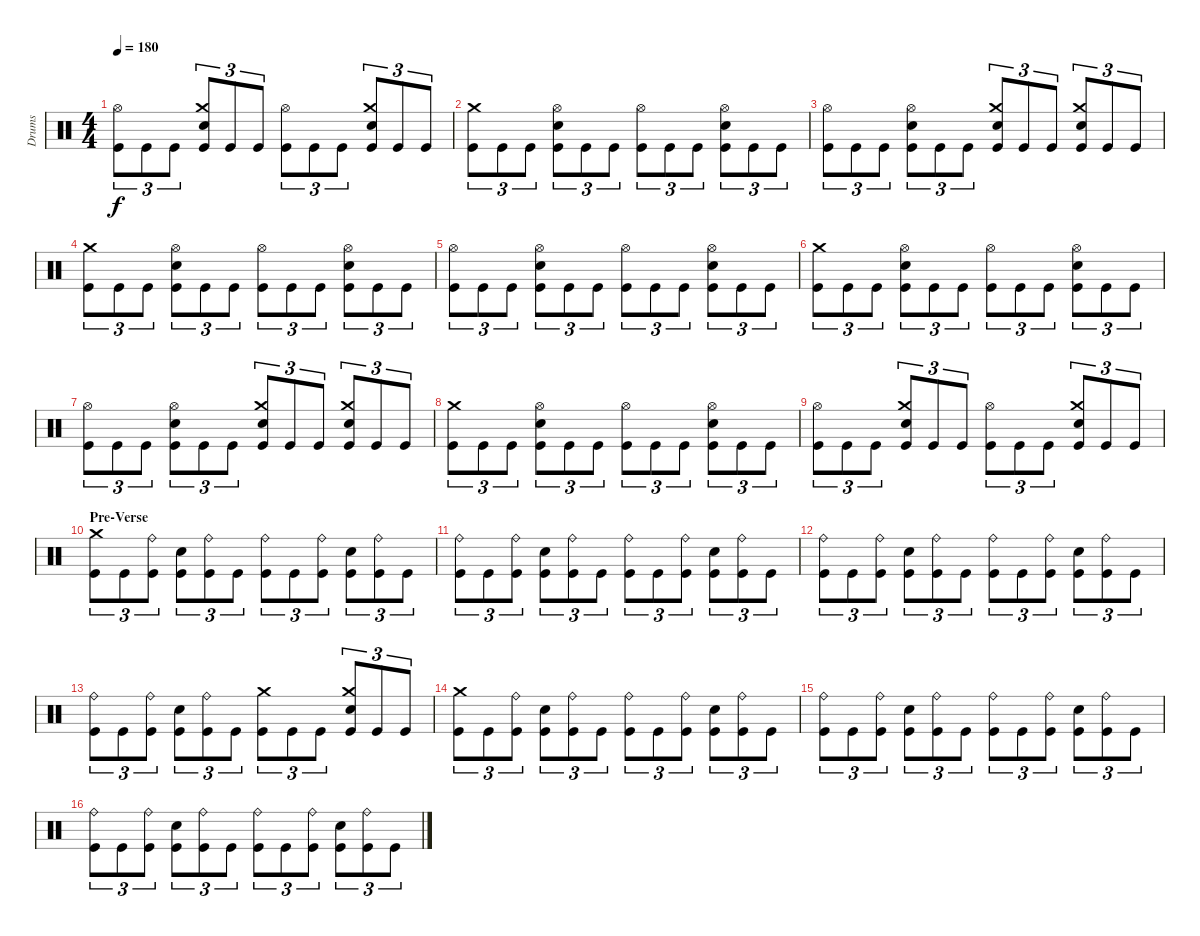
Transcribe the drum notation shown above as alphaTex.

\track ("Drums" "Drums") {instrument percussion}
\staff {score}
\articulation defaults
\ts (4 4)
\tempo 180
\clef neutral
\ks c
("Hi-Hat (open)" "Kick (hit)").8{tu (3 2) dy f} "Kick (hit)".8{tu (3 2)} "Kick (hit)".8{tu (3 2)} ("Crash medium (hit)" "Electric Snare (hit)" "Kick (hit)").8{tu (3 2)} "Kick (hit)".8{tu (3 2)} "Kick (hit)".8{tu (3 2)} ("Hi-Hat (open)" "Kick (hit)").8{tu (3 2)} "Kick (hit)".8{tu (3 2)} "Kick (hit)".8{tu (3 2)} ("Crash medium (hit)" "Electric Snare (hit)" "Kick (hit)").8{tu (3 2)} "Kick (hit)".8{tu (3 2)} "Kick (hit)".8{tu (3 2)} |
("Crash medium (hit)" "Kick (hit)").8{tu (3 2)} "Kick (hit)".8{tu (3 2)} "Kick (hit)".8{tu (3 2)} ("Hi-Hat (open)" "Electric Snare (hit)" "Kick (hit)").8{tu (3 2)} "Kick (hit)".8{tu (3 2)} "Kick (hit)".8{tu (3 2)} ("Hi-Hat (open)" "Kick (hit)").8{tu (3 2)} "Kick (hit)".8{tu (3 2)} "Kick (hit)".8{tu (3 2)} ("Hi-Hat (open)" "Electric Snare (hit)" "Kick (hit)").8{tu (3 2)} "Kick (hit)".8{tu (3 2)} "Kick (hit)".8{tu (3 2)} |
("Hi-Hat (open)" "Kick (hit)").8{tu (3 2)} "Kick (hit)".8{tu (3 2)} "Kick (hit)".8{tu (3 2)} ("Hi-Hat (open)" "Electric Snare (hit)" "Kick (hit)").8{tu (3 2)} "Kick (hit)".8{tu (3 2)} "Kick (hit)".8{tu (3 2)} ("Crash medium (hit)" "Electric Snare (hit)" "Kick (hit)").8{tu (3 2)} "Kick (hit)".8{tu (3 2)} "Kick (hit)".8{tu (3 2)} ("Crash medium (hit)" "Electric Snare (hit)" "Kick (hit)").8{tu (3 2)} "Kick (hit)".8{tu (3 2)} "Kick (hit)".8{tu (3 2)} |
("Crash medium (hit)" "Kick (hit)").8{tu (3 2)} "Kick (hit)".8{tu (3 2)} "Kick (hit)".8{tu (3 2)} ("Hi-Hat (open)" "Electric Snare (hit)" "Kick (hit)").8{tu (3 2)} "Kick (hit)".8{tu (3 2)} "Kick (hit)".8{tu (3 2)} ("Hi-Hat (open)" "Kick (hit)").8{tu (3 2)} "Kick (hit)".8{tu (3 2)} "Kick (hit)".8{tu (3 2)} ("Hi-Hat (open)" "Electric Snare (hit)" "Kick (hit)").8{tu (3 2)} "Kick (hit)".8{tu (3 2)} "Kick (hit)".8{tu (3 2)} |
("Hi-Hat (open)" "Kick (hit)").8{tu (3 2)} "Kick (hit)".8{tu (3 2)} "Kick (hit)".8{tu (3 2)} ("Hi-Hat (open)" "Electric Snare (hit)" "Kick (hit)").8{tu (3 2)} "Kick (hit)".8{tu (3 2)} "Kick (hit)".8{tu (3 2)} ("Hi-Hat (open)" "Kick (hit)").8{tu (3 2)} "Kick (hit)".8{tu (3 2)} "Kick (hit)".8{tu (3 2)} ("Hi-Hat (open)" "Electric Snare (hit)" "Kick (hit)").8{tu (3 2)} "Kick (hit)".8{tu (3 2)} "Kick (hit)".8{tu (3 2)} |
("Crash medium (hit)" "Kick (hit)").8{tu (3 2)} "Kick (hit)".8{tu (3 2)} "Kick (hit)".8{tu (3 2)} ("Hi-Hat (open)" "Electric Snare (hit)" "Kick (hit)").8{tu (3 2)} "Kick (hit)".8{tu (3 2)} "Kick (hit)".8{tu (3 2)} ("Hi-Hat (open)" "Kick (hit)").8{tu (3 2)} "Kick (hit)".8{tu (3 2)} "Kick (hit)".8{tu (3 2)} ("Hi-Hat (open)" "Electric Snare (hit)" "Kick (hit)").8{tu (3 2)} "Kick (hit)".8{tu (3 2)} "Kick (hit)".8{tu (3 2)} |
("Hi-Hat (open)" "Kick (hit)").8{tu (3 2)} "Kick (hit)".8{tu (3 2)} "Kick (hit)".8{tu (3 2)} ("Hi-Hat (open)" "Electric Snare (hit)" "Kick (hit)").8{tu (3 2)} "Kick (hit)".8{tu (3 2)} "Kick (hit)".8{tu (3 2)} ("Crash medium (hit)" "Electric Snare (hit)" "Kick (hit)").8{tu (3 2)} "Kick (hit)".8{tu (3 2)} "Kick (hit)".8{tu (3 2)} ("Crash medium (hit)" "Electric Snare (hit)" "Kick (hit)").8{tu (3 2)} "Kick (hit)".8{tu (3 2)} "Kick (hit)".8{tu (3 2)} |
("Crash medium (hit)" "Kick (hit)").8{tu (3 2)} "Kick (hit)".8{tu (3 2)} "Kick (hit)".8{tu (3 2)} ("Hi-Hat (open)" "Electric Snare (hit)" "Kick (hit)").8{tu (3 2)} "Kick (hit)".8{tu (3 2)} "Kick (hit)".8{tu (3 2)} ("Hi-Hat (open)" "Kick (hit)").8{tu (3 2)} "Kick (hit)".8{tu (3 2)} "Kick (hit)".8{tu (3 2)} ("Hi-Hat (open)" "Electric Snare (hit)" "Kick (hit)").8{tu (3 2)} "Kick (hit)".8{tu (3 2)} "Kick (hit)".8{tu (3 2)} |
("Hi-Hat (open)" "Kick (hit)").8{tu (3 2)} "Kick (hit)".8{tu (3 2)} "Kick (hit)".8{tu (3 2)} ("Crash medium (hit)" "Electric Snare (hit)" "Kick (hit)").8{tu (3 2)} "Kick (hit)".8{tu (3 2)} "Kick (hit)".8{tu (3 2)} ("Hi-Hat (open)" "Kick (hit)").8{tu (3 2)} "Kick (hit)".8{tu (3 2)} "Kick (hit)".8{tu (3 2)} ("Crash medium (hit)" "Electric Snare (hit)" "Kick (hit)").8{tu (3 2)} "Kick (hit)".8{tu (3 2)} "Kick (hit)".8{tu (3 2)} |
\section ("" "Pre-Verse")
("Crash medium (hit)" "Kick (hit)").8{tu (3 2)} "Kick (hit)".8{tu (3 2)} ("Ride (bell)" "Kick (hit)").8{tu (3 2)} ("Electric Snare (hit)" "Kick (hit)").8{tu (3 2)} ("Ride (bell)" "Kick (hit)").8{tu (3 2)} "Kick (hit)".8{tu (3 2)} ("Ride (bell)" "Kick (hit)").8{tu (3 2)} "Kick (hit)".8{tu (3 2)} ("Ride (bell)" "Kick (hit)").8{tu (3 2)} ("Electric Snare (hit)" "Kick (hit)").8{tu (3 2)} ("Ride (bell)" "Kick (hit)").8{tu (3 2)} "Kick (hit)".8{tu (3 2)} |
("Ride (bell)" "Kick (hit)").8{tu (3 2)} "Kick (hit)".8{tu (3 2)} ("Ride (bell)" "Kick (hit)").8{tu (3 2)} ("Electric Snare (hit)" "Kick (hit)").8{tu (3 2)} ("Ride (bell)" "Kick (hit)").8{tu (3 2)} "Kick (hit)".8{tu (3 2)} ("Ride (bell)" "Kick (hit)").8{tu (3 2)} "Kick (hit)".8{tu (3 2)} ("Ride (bell)" "Kick (hit)").8{tu (3 2)} ("Electric Snare (hit)" "Kick (hit)").8{tu (3 2)} ("Ride (bell)" "Kick (hit)").8{tu (3 2)} "Kick (hit)".8{tu (3 2)} |
("Ride (bell)" "Kick (hit)").8{tu (3 2)} "Kick (hit)".8{tu (3 2)} ("Ride (bell)" "Kick (hit)").8{tu (3 2)} ("Electric Snare (hit)" "Kick (hit)").8{tu (3 2)} ("Ride (bell)" "Kick (hit)").8{tu (3 2)} "Kick (hit)".8{tu (3 2)} ("Ride (bell)" "Kick (hit)").8{tu (3 2)} "Kick (hit)".8{tu (3 2)} ("Ride (bell)" "Kick (hit)").8{tu (3 2)} ("Electric Snare (hit)" "Kick (hit)").8{tu (3 2)} ("Ride (bell)" "Kick (hit)").8{tu (3 2)} "Kick (hit)".8{tu (3 2)} |
("Ride (bell)" "Kick (hit)").8{tu (3 2)} "Kick (hit)".8{tu (3 2)} ("Ride (bell)" "Kick (hit)").8{tu (3 2)} ("Electric Snare (hit)" "Kick (hit)").8{tu (3 2)} ("Ride (bell)" "Kick (hit)").8{tu (3 2)} "Kick (hit)".8{tu (3 2)} ("Crash medium (hit)" "Kick (hit)").8{tu (3 2)} "Kick (hit)".8{tu (3 2)} "Kick (hit)".8{tu (3 2)} ("Crash medium (hit)" "Electric Snare (hit)" "Kick (hit)").8{tu (3 2)} "Kick (hit)".8{tu (3 2)} "Kick (hit)".8{tu (3 2)} |
("Crash medium (hit)" "Kick (hit)").8{tu (3 2)} "Kick (hit)".8{tu (3 2)} ("Ride (bell)" "Kick (hit)").8{tu (3 2)} ("Electric Snare (hit)" "Kick (hit)").8{tu (3 2)} ("Ride (bell)" "Kick (hit)").8{tu (3 2)} "Kick (hit)".8{tu (3 2)} ("Ride (bell)" "Kick (hit)").8{tu (3 2)} "Kick (hit)".8{tu (3 2)} ("Ride (bell)" "Kick (hit)").8{tu (3 2)} ("Electric Snare (hit)" "Kick (hit)").8{tu (3 2)} ("Ride (bell)" "Kick (hit)").8{tu (3 2)} "Kick (hit)".8{tu (3 2)} |
("Ride (bell)" "Kick (hit)").8{tu (3 2)} "Kick (hit)".8{tu (3 2)} ("Ride (bell)" "Kick (hit)").8{tu (3 2)} ("Electric Snare (hit)" "Kick (hit)").8{tu (3 2)} ("Ride (bell)" "Kick (hit)").8{tu (3 2)} "Kick (hit)".8{tu (3 2)} ("Ride (bell)" "Kick (hit)").8{tu (3 2)} "Kick (hit)".8{tu (3 2)} ("Ride (bell)" "Kick (hit)").8{tu (3 2)} ("Electric Snare (hit)" "Kick (hit)").8{tu (3 2)} ("Ride (bell)" "Kick (hit)").8{tu (3 2)} "Kick (hit)".8{tu (3 2)} |
("Ride (bell)" "Kick (hit)").8{tu (3 2)} "Kick (hit)".8{tu (3 2)} ("Ride (bell)" "Kick (hit)").8{tu (3 2)} ("Electric Snare (hit)" "Kick (hit)").8{tu (3 2)} ("Ride (bell)" "Kick (hit)").8{tu (3 2)} "Kick (hit)".8{tu (3 2)} ("Ride (bell)" "Kick (hit)").8{tu (3 2)} "Kick (hit)".8{tu (3 2)} ("Ride (bell)" "Kick (hit)").8{tu (3 2)} ("Electric Snare (hit)" "Kick (hit)").8{tu (3 2)} ("Ride (bell)" "Kick (hit)").8{tu (3 2)} "Kick (hit)".8{tu (3 2)}
